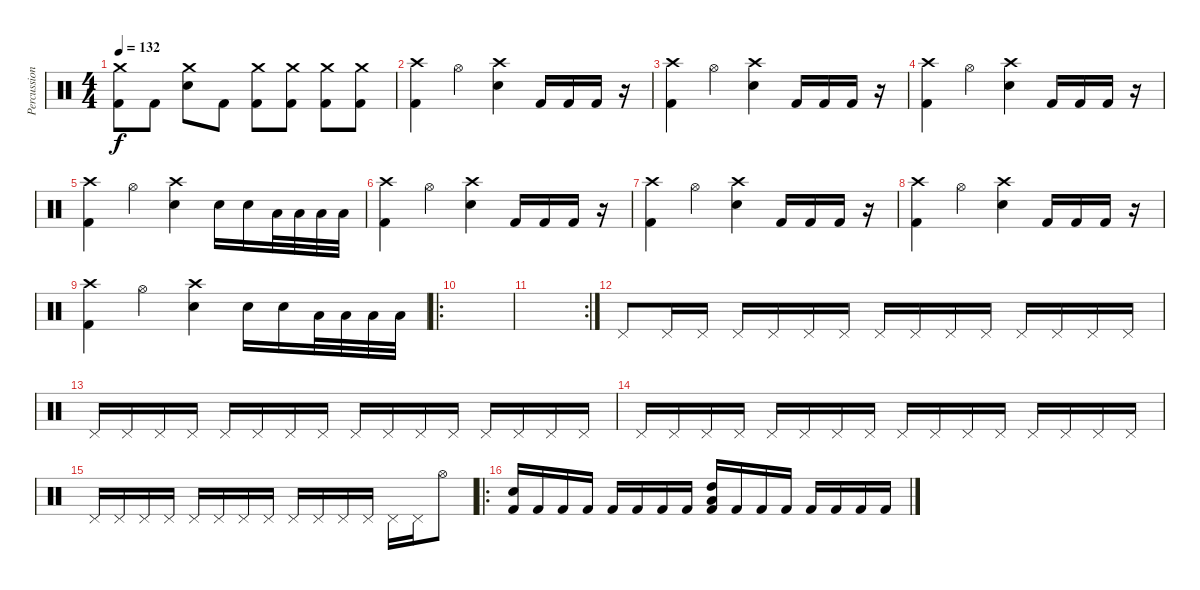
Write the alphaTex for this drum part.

\track ("Percussion" "Percussion") {instrument percussion}
\staff {score}
\articulation defaults
\ts (4 4)
\tempo 132
\clef neutral
\ks c
("Kick (hit) 2" "Crash medium (hit)").8{dy f} "Kick (hit) 2".8 ("Electric Snare (hit)" "Crash medium (hit)").8 "Kick (hit) 2".8 ("Kick (hit) 2" "Crash medium (hit)").8 ("Kick (hit) 2" "Crash medium (hit)").8 ("Kick (hit) 2" "Crash medium (hit)").8 ("Kick (hit) 2" "Crash medium (hit)").8 |
("Kick (hit) 2" "Crash high (hit)").4 "Hi-Hat (open)".4 ("Electric Snare (hit)" "Crash high (hit)").4 "Kick (hit) 2".16 "Kick (hit) 2".16 "Kick (hit) 2".16 r.16 |
("Kick (hit) 2" "Crash high (hit)").4 "Hi-Hat (open)".4 ("Electric Snare (hit)" "Crash high (hit)").4 "Kick (hit) 2".16 "Kick (hit) 2".16 "Kick (hit) 2".16 r.16 |
("Kick (hit) 2" "Crash high (hit)").4 "Hi-Hat (open)".4 ("Electric Snare (hit)" "Crash high (hit)").4 "Kick (hit) 2".16 "Kick (hit) 2".16 "Kick (hit) 2".16 r.16 |
("Kick (hit) 2" "Crash high (hit)").4 "Hi-Hat (open)".4 ("Electric Snare (hit)" "Crash high (hit)").4 "Electric Snare (hit)".16 "Electric Snare (hit)".16 "Low Tom (hit)".32 "Low Tom (hit)".32 "Low Tom (hit)".32 "Low Tom (hit)".32 |
("Kick (hit) 2" "Crash high (hit)").4 "Hi-Hat (open)".4 ("Electric Snare (hit)" "Crash high (hit)").4 "Kick (hit) 2".16 "Kick (hit) 2".16 "Kick (hit) 2".16 r.16 |
("Kick (hit) 2" "Crash high (hit)").4 "Hi-Hat (open)".4 ("Electric Snare (hit)" "Crash high (hit)").4 "Kick (hit) 2".16 "Kick (hit) 2".16 "Kick (hit) 2".16 r.16 |
("Kick (hit) 2" "Crash high (hit)").4 "Hi-Hat (open)".4 ("Electric Snare (hit)" "Crash high (hit)").4 "Kick (hit) 2".16 "Kick (hit) 2".16 "Kick (hit) 2".16 r.16 |
("Kick (hit) 2" "Crash high (hit)").4 "Hi-Hat (open)".4 ("Electric Snare (hit)" "Crash high (hit)").4 "Electric Snare (hit)".16 "Electric Snare (hit)".16 "Low Tom (hit)".32 "Low Tom (hit)".32 "Low Tom (hit)".32 "Low Tom (hit)".32 |
\ro
|
\rc 2
|
"Pedal Hi-Hat (hit)".8 "Pedal Hi-Hat (hit)".16 "Pedal Hi-Hat (hit)".16 "Pedal Hi-Hat (hit)".16 "Pedal Hi-Hat (hit)".16 "Pedal Hi-Hat (hit)".16 "Pedal Hi-Hat (hit)".16 "Pedal Hi-Hat (hit)".16 "Pedal Hi-Hat (hit)".16 "Pedal Hi-Hat (hit)".16 "Pedal Hi-Hat (hit)".16 "Pedal Hi-Hat (hit)".16 "Pedal Hi-Hat (hit)".16 "Pedal Hi-Hat (hit)".16 "Pedal Hi-Hat (hit)".16 |
"Pedal Hi-Hat (hit)".16 "Pedal Hi-Hat (hit)".16 "Pedal Hi-Hat (hit)".16 "Pedal Hi-Hat (hit)".16 "Pedal Hi-Hat (hit)".16 "Pedal Hi-Hat (hit)".16 "Pedal Hi-Hat (hit)".16 "Pedal Hi-Hat (hit)".16 "Pedal Hi-Hat (hit)".16 "Pedal Hi-Hat (hit)".16 "Pedal Hi-Hat (hit)".16 "Pedal Hi-Hat (hit)".16 "Pedal Hi-Hat (hit)".16 "Pedal Hi-Hat (hit)".16 "Pedal Hi-Hat (hit)".16 "Pedal Hi-Hat (hit)".16 |
"Pedal Hi-Hat (hit)".16 "Pedal Hi-Hat (hit)".16 "Pedal Hi-Hat (hit)".16 "Pedal Hi-Hat (hit)".16 "Pedal Hi-Hat (hit)".16 "Pedal Hi-Hat (hit)".16 "Pedal Hi-Hat (hit)".16 "Pedal Hi-Hat (hit)".16 "Pedal Hi-Hat (hit)".16 "Pedal Hi-Hat (hit)".16 "Pedal Hi-Hat (hit)".16 "Pedal Hi-Hat (hit)".16 "Pedal Hi-Hat (hit)".16 "Pedal Hi-Hat (hit)".16 "Pedal Hi-Hat (hit)".16 "Pedal Hi-Hat (hit)".16 |
"Pedal Hi-Hat (hit)".16 "Pedal Hi-Hat (hit)".16 "Pedal Hi-Hat (hit)".16 "Pedal Hi-Hat (hit)".16 "Pedal Hi-Hat (hit)".16 "Pedal Hi-Hat (hit)".16 "Pedal Hi-Hat (hit)".16 "Pedal Hi-Hat (hit)".16 "Pedal Hi-Hat (hit)".16 "Pedal Hi-Hat (hit)".16 "Pedal Hi-Hat (hit)".16 "Pedal Hi-Hat (hit)".16 "Pedal Hi-Hat (hit)".16 "Pedal Hi-Hat (hit)".16 "Hi-Hat (open)".8 |
\ro
("Kick (hit) 2" "Electric Snare (hit)").16 "Kick (hit) 2".16 "Kick (hit) 2".16 "Kick (hit) 2".16 "Kick (hit) 2".16 "Kick (hit) 2".16 "Kick (hit) 2".16 "Kick (hit) 2".16 ("Kick (hit) 2" "Low Tom (hit)" "High Tom (hit)").16 "Kick (hit) 2".16 "Kick (hit) 2".16 "Kick (hit) 2".16 "Kick (hit) 2".16 "Kick (hit) 2".16 "Kick (hit) 2".16 "Kick (hit) 2".16
